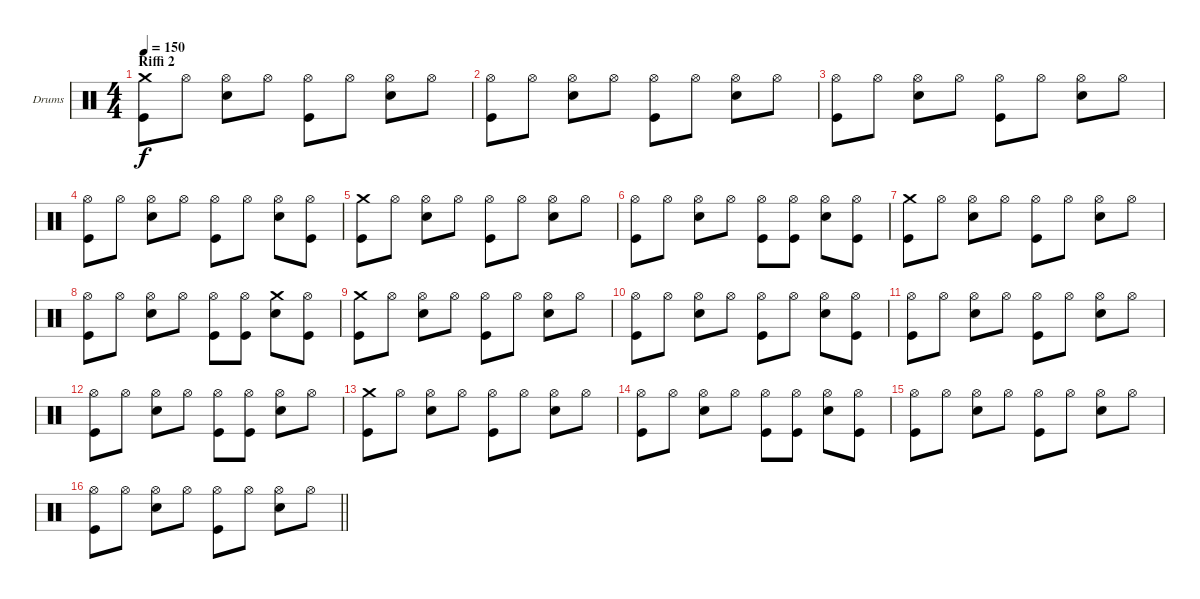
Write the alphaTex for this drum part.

\bracketExtendMode groupsimilarinstruments
\firstSystemTrackNameOrientation horizontal
\otherSystemsTrackNameOrientation horizontal
\track ("Drumkit" "Drums") {instrument percussion}
\staff {score}
\articulation defaults
\ts (4 4)
\section ("" "Riffi 2")
\tempo 150
\clef neutral
\ks c
("Crash medium (hit)" "Kick (hit)").8{dy f} "Hi-Hat (open)".8 ("Hi-Hat (open)" "Snare (hit) 2").8 "Hi-Hat (open)".8 ("Hi-Hat (open)" "Kick (hit)").8 "Hi-Hat (open)".8 ("Hi-Hat (open)" "Snare (hit) 2").8 "Hi-Hat (open)".8 |
("Hi-Hat (open)" "Kick (hit)").8 "Hi-Hat (open)".8 ("Hi-Hat (open)" "Snare (hit) 2").8 "Hi-Hat (open)".8 ("Hi-Hat (open)" "Kick (hit)").8 "Hi-Hat (open)".8 ("Hi-Hat (open)" "Snare (hit) 2").8 "Hi-Hat (open)".8 |
("Hi-Hat (open)" "Kick (hit)").8 "Hi-Hat (open)".8 ("Hi-Hat (open)" "Snare (hit) 2").8 "Hi-Hat (open)".8 ("Hi-Hat (open)" "Kick (hit)").8 "Hi-Hat (open)".8 ("Hi-Hat (open)" "Snare (hit) 2").8 "Hi-Hat (open)".8 |
("Hi-Hat (open)" "Kick (hit)").8 "Hi-Hat (open)".8 ("Hi-Hat (open)" "Snare (hit) 2").8 "Hi-Hat (open)".8 ("Hi-Hat (open)" "Kick (hit)").8 "Hi-Hat (open)".8 ("Hi-Hat (open)" "Snare (hit) 2").8 ("Hi-Hat (open)" "Kick (hit)").8 |
("Crash medium (hit)" "Kick (hit)").8 "Hi-Hat (open)".8 ("Hi-Hat (open)" "Snare (hit) 2").8 "Hi-Hat (open)".8 ("Hi-Hat (open)" "Kick (hit)").8 "Hi-Hat (open)".8 ("Hi-Hat (open)" "Snare (hit) 2").8 "Hi-Hat (open)".8 |
("Hi-Hat (open)" "Kick (hit)").8 "Hi-Hat (open)".8 ("Hi-Hat (open)" "Snare (hit) 2").8 "Hi-Hat (open)".8 ("Hi-Hat (open)" "Kick (hit)").8 ("Hi-Hat (open)" "Kick (hit)").8 ("Hi-Hat (open)" "Snare (hit) 2").8 ("Hi-Hat (open)" "Kick (hit)").8 |
("Crash medium (hit)" "Kick (hit)").8 "Hi-Hat (open)".8 ("Hi-Hat (open)" "Snare (hit) 2").8 "Hi-Hat (open)".8 ("Hi-Hat (open)" "Kick (hit)").8 "Hi-Hat (open)".8 ("Hi-Hat (open)" "Snare (hit) 2").8 "Hi-Hat (open)".8 |
("Hi-Hat (open)" "Kick (hit)").8 "Hi-Hat (open)".8 ("Hi-Hat (open)" "Snare (hit) 2").8 "Hi-Hat (open)".8 ("Hi-Hat (open)" "Kick (hit)").8 ("Hi-Hat (open)" "Kick (hit)").8 ("Crash medium (hit)" "Snare (hit) 2").8 ("Hi-Hat (open)" "Kick (hit)").8 |
("Crash medium (hit)" "Kick (hit)").8 "Hi-Hat (open)".8 ("Hi-Hat (open)" "Snare (hit) 2").8 "Hi-Hat (open)".8 ("Hi-Hat (open)" "Kick (hit)").8 "Hi-Hat (open)".8 ("Hi-Hat (open)" "Snare (hit) 2").8 "Hi-Hat (open)".8 |
("Hi-Hat (open)" "Kick (hit)").8 "Hi-Hat (open)".8 ("Hi-Hat (open)" "Snare (hit) 2").8 "Hi-Hat (open)".8 ("Hi-Hat (open)" "Kick (hit)").8 "Hi-Hat (open)".8 ("Hi-Hat (open)" "Snare (hit) 2").8 ("Hi-Hat (open)" "Kick (hit)").8 |
("Hi-Hat (open)" "Kick (hit)").8 "Hi-Hat (open)".8 ("Hi-Hat (open)" "Snare (hit) 2").8 "Hi-Hat (open)".8 ("Hi-Hat (open)" "Kick (hit)").8 "Hi-Hat (open)".8 ("Hi-Hat (open)" "Snare (hit) 2").8 "Hi-Hat (open)".8 |
("Hi-Hat (open)" "Kick (hit)").8 "Hi-Hat (open)".8 ("Hi-Hat (open)" "Snare (hit) 2").8 "Hi-Hat (open)".8 ("Hi-Hat (open)" "Kick (hit)").8 ("Hi-Hat (open)" "Kick (hit)").8 ("Hi-Hat (open)" "Snare (hit) 2").8 "Hi-Hat (open)".8 |
("Crash medium (hit)" "Kick (hit)").8 "Hi-Hat (open)".8 ("Hi-Hat (open)" "Snare (hit) 2").8 "Hi-Hat (open)".8 ("Hi-Hat (open)" "Kick (hit)").8 "Hi-Hat (open)".8 ("Hi-Hat (open)" "Snare (hit) 2").8 "Hi-Hat (open)".8 |
("Hi-Hat (open)" "Kick (hit)").8 "Hi-Hat (open)".8 ("Hi-Hat (open)" "Snare (hit) 2").8 "Hi-Hat (open)".8 ("Hi-Hat (open)" "Kick (hit)").8 ("Hi-Hat (open)" "Kick (hit)").8 ("Hi-Hat (open)" "Snare (hit) 2").8 ("Hi-Hat (open)" "Kick (hit)").8 |
("Hi-Hat (open)" "Kick (hit)").8 "Hi-Hat (open)".8 ("Hi-Hat (open)" "Snare (hit) 2").8 "Hi-Hat (open)".8 ("Hi-Hat (open)" "Kick (hit)").8 "Hi-Hat (open)".8 ("Hi-Hat (open)" "Snare (hit) 2").8 "Hi-Hat (open)".8 |
\barLineRight lightlight
("Hi-Hat (open)" "Kick (hit)").8 "Hi-Hat (open)".8 ("Hi-Hat (open)" "Snare (hit) 2").8 "Hi-Hat (open)".8 ("Hi-Hat (open)" "Kick (hit)").8 "Hi-Hat (open)".8 ("Hi-Hat (open)" "Snare (hit) 2").8 "Hi-Hat (open)".8
